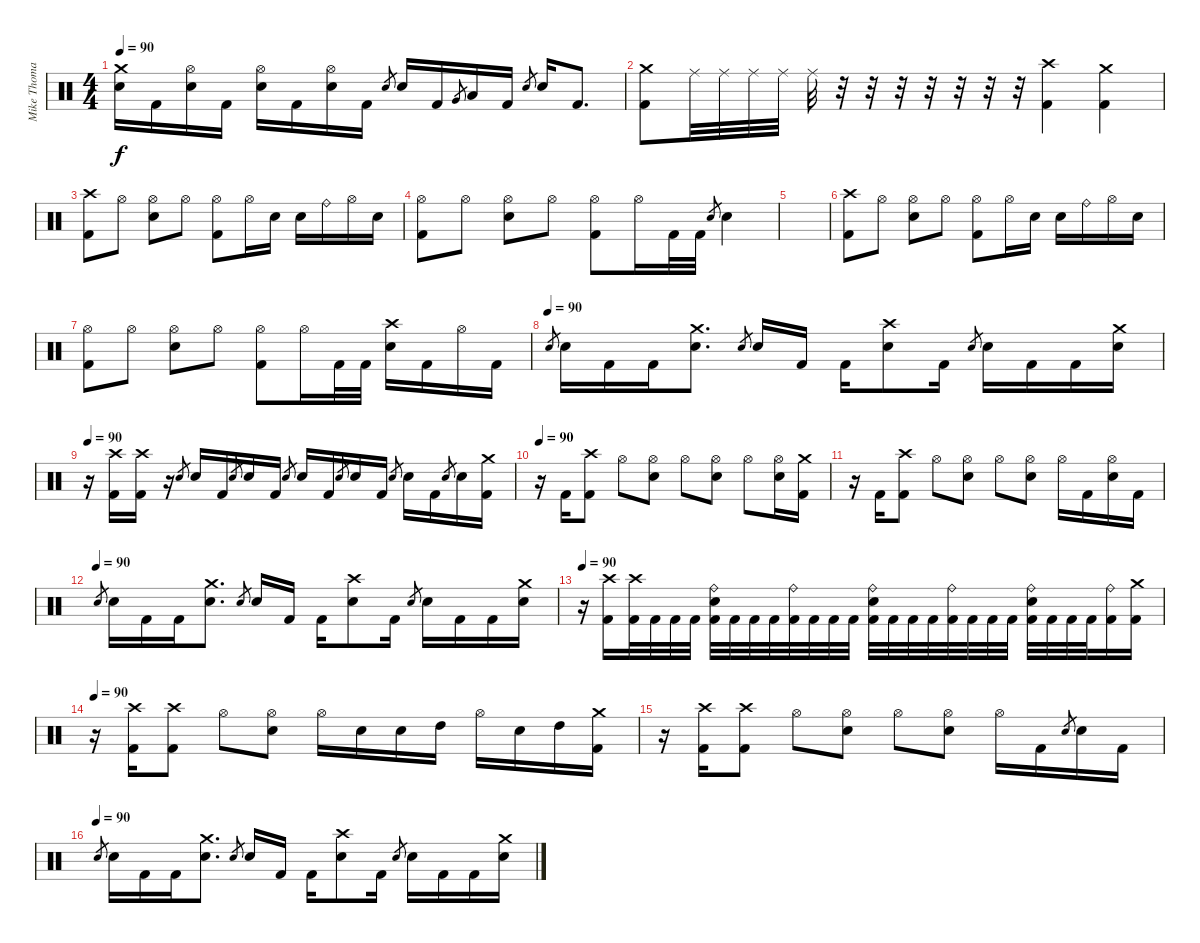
\track ("Mike Thomas (moose)" "Mike Thoma") {instrument percussion}
\staff {score}
\articulation defaults
\ts (4 4)
\tempo 90
\clef neutral
\ks c
("Crash medium (hit)" "Electric Snare (hit)").16{dy f} "Kick (hit) 2".16 ("Hi-Hat (open)" "Electric Snare (hit)").16 "Kick (hit) 2".16 ("Hi-Hat (open)" "Electric Snare (hit)").16 "Kick (hit) 2".16 ("Hi-Hat (open)" "Electric Snare (hit)").16 "Kick (hit) 2".16 "Electric Snare (hit)".8{gr} "Electric Snare (hit)".16 "Kick (hit) 2".16 "Very Low Tom (hit)".8{gr} "Low Floor Tom (hit)".16 "Kick (hit) 2".16 "Electric Snare (hit)".8{gr} "Electric Snare (hit)".16 "Kick (hit) 2".8{d} |
("Crash medium (hit)" "Kick (hit) 2").8 "Ride (middle)".32 "Ride (middle)".32 "Ride (middle)".32 "Ride (middle)".32 "Ride (middle)".32 r.32 r.32 r.32 r.32 r.32 r.32 r.32 ("Crash high (hit)" "Kick (hit) 2").4 ("Crash medium (hit)" "Kick (hit) 2").4 |
("Crash high (hit)" "Kick (hit) 2").8 "Hi-Hat (open)".8 ("Hi-Hat (open)" "Electric Snare (hit)").8 "Hi-Hat (open)".8 ("Hi-Hat (open)" "Kick (hit) 2").8 "Hi-Hat (open)".16 "Electric Snare (hit)".16 "Electric Snare (hit)".16 "Ride (bell)".16 "Hi-Hat (open)".16 "Electric Snare (hit)".16 |
("Hi-Hat (open)" "Kick (hit) 2").8 "Hi-Hat (open)".8 ("Hi-Hat (open)" "Electric Snare (hit)").8 "Hi-Hat (open)".8 ("Hi-Hat (open)" "Kick (hit) 2").8 "Hi-Hat (open)".16 "Kick (hit) 2".32 "Kick (hit) 2".32 "Electric Snare (hit)".8{gr} "Electric Snare (hit)".4 |
|
("Crash high (hit)" "Kick (hit) 2").8 "Hi-Hat (open)".8 ("Hi-Hat (open)" "Electric Snare (hit)").8 "Hi-Hat (open)".8 ("Hi-Hat (open)" "Kick (hit) 2").8 "Hi-Hat (open)".16 "Electric Snare (hit)".16 "Electric Snare (hit)".16 "Ride (bell)".16 "Hi-Hat (open)".16 "Electric Snare (hit)".16 |
("Hi-Hat (open)" "Kick (hit) 2").8 "Hi-Hat (open)".8 ("Hi-Hat (open)" "Electric Snare (hit)").8 "Hi-Hat (open)".8 ("Hi-Hat (open)" "Kick (hit) 2").8 "Hi-Hat (open)".16 "Kick (hit) 2".32 "Kick (hit) 2".32 ("Crash high (hit)" "Electric Snare (hit)").16 "Kick (hit) 2".16 "Hi-Hat (open)".16 "Kick (hit) 2".16 |
\tempo (90)
"Electric Snare (hit)".8{gr} "Electric Snare (hit)".16 "Kick (hit) 2".16 "Kick (hit) 2".16 ("Crash medium (hit)" "Electric Snare (hit)").8{d} "Electric Snare (hit)".8{gr} "Electric Snare (hit)".16 "Kick (hit) 2".16 "Kick (hit) 2".16 ("Crash high (hit)" "Electric Snare (hit)").8 "Kick (hit) 2".16 "Electric Snare (hit)".8{gr} "Electric Snare (hit)".16 "Kick (hit) 2".16 "Kick (hit) 2".16 ("Crash medium (hit)" "Electric Snare (hit)").16 |
\tempo 90
r.16 ("Crash high (hit)" "Kick (hit) 2").16 ("Crash high (hit)" "Kick (hit) 2").16 r.16 "Electric Snare (hit)".8{gr} "Electric Snare (hit)".16 "Kick (hit) 2".16 "Electric Snare (hit)".8{gr} "Electric Snare (hit)".16 "Kick (hit) 2".16 "Electric Snare (hit)".8{gr} "Electric Snare (hit)".16 "Kick (hit) 2".16 "Electric Snare (hit)".8{gr} "Electric Snare (hit)".16 "Kick (hit) 2".16 "Electric Snare (hit)".8{gr} "Electric Snare (hit)".16 "Kick (hit) 2".16 "Electric Snare (hit)".8{gr} "Electric Snare (hit)".16 ("Crash medium (hit)" "Kick (hit) 2").16 |
\tempo 90
r.16 "Kick (hit) 2".16 ("Crash high (hit)" "Kick (hit) 2").8 "Hi-Hat (open)".8 ("Hi-Hat (open)" "Electric Snare (hit)").8 "Hi-Hat (open)".8 ("Hi-Hat (open)" "Electric Snare (hit)").8 "Hi-Hat (open)".8 ("Hi-Hat (open)" "Electric Snare (hit)").16 ("Crash medium (hit)" "Kick (hit) 2").16 |
r.16 "Kick (hit) 2".16 ("Crash high (hit)" "Kick (hit) 2").8 "Hi-Hat (open)".8 ("Hi-Hat (open)" "Electric Snare (hit)").8 "Hi-Hat (open)".8 ("Hi-Hat (open)" "Electric Snare (hit)").8 "Hi-Hat (open)".16 "Kick (hit) 2".16 ("Hi-Hat (open)" "Electric Snare (hit)").16 "Kick (hit) 2".16 |
\tempo (90)
"Electric Snare (hit)".8{gr} "Electric Snare (hit)".16 "Kick (hit) 2".16 "Kick (hit) 2".16 ("Crash medium (hit)" "Electric Snare (hit)").8{d} "Electric Snare (hit)".8{gr} "Electric Snare (hit)".16 "Kick (hit) 2".16 "Kick (hit) 2".16 ("Crash high (hit)" "Electric Snare (hit)").8 "Kick (hit) 2".16 "Electric Snare (hit)".8{gr} "Electric Snare (hit)".16 "Kick (hit) 2".16 "Kick (hit) 2".16 ("Crash medium (hit)" "Electric Snare (hit)").16 |
\tempo 90
r.16 ("Crash high (hit)" "Kick (hit) 2").16 ("Crash high (hit)" "Kick (hit) 2").32 "Kick (hit) 2".32 "Kick (hit) 2".32 "Kick (hit) 2".32 ("Ride (bell)" "Electric Snare (hit)" "Kick (hit) 2").32 "Kick (hit) 2".32 "Kick (hit) 2".32 "Kick (hit) 2".32 ("Ride (bell)" "Kick (hit) 2").32 "Kick (hit) 2".32 "Kick (hit) 2".32 "Kick (hit) 2".32 ("Ride (bell)" "Electric Snare (hit)" "Kick (hit) 2").32 "Kick (hit) 2".32 "Kick (hit) 2".32 "Kick (hit) 2".32 ("Ride (bell)" "Kick (hit) 2").32 "Kick (hit) 2".32 "Kick (hit) 2".32 "Kick (hit) 2".32 ("Ride (bell)" "Electric Snare (hit)" "Kick (hit) 2").32 "Kick (hit) 2".32 "Kick (hit) 2".32 "Kick (hit) 2".32 ("Ride (bell)" "Kick (hit) 2").16 ("Crash medium (hit)" "Kick (hit) 2").16 |
\tempo 90
r.16 ("Crash high (hit)" "Kick (hit) 2").16 ("Crash high (hit)" "Kick (hit) 2").8 "Hi-Hat (open)".8 ("Hi-Hat (open)" "Electric Snare (hit)").8 "Hi-Hat (open)".16 "Electric Snare (hit)".16 "Electric Snare (hit)".16 "High Tom (hit)".16 "Hi-Hat (open)".16 "Electric Snare (hit)".16 "High Tom (hit)".16 ("Crash medium (hit)" "Kick (hit) 2").16 |
r.16 ("Crash high (hit)" "Kick (hit) 2").16 ("Crash high (hit)" "Kick (hit) 2").8 "Hi-Hat (open)".8 ("Hi-Hat (open)" "Electric Snare (hit)").8 "Hi-Hat (open)".8 ("Hi-Hat (open)" "Electric Snare (hit)").8 "Hi-Hat (open)".16 "Kick (hit) 2".16 "Electric Snare (hit)".8{gr} "Electric Snare (hit)".16 "Kick (hit) 2".16 |
\tempo (90)
"Electric Snare (hit)".8{gr} "Electric Snare (hit)".16 "Kick (hit) 2".16 "Kick (hit) 2".16 ("Crash medium (hit)" "Electric Snare (hit)").8{d} "Electric Snare (hit)".8{gr} "Electric Snare (hit)".16 "Kick (hit) 2".16 "Kick (hit) 2".16 ("Crash high (hit)" "Electric Snare (hit)").8 "Kick (hit) 2".16 "Electric Snare (hit)".8{gr} "Electric Snare (hit)".16 "Kick (hit) 2".16 "Kick (hit) 2".16 ("Crash medium (hit)" "Electric Snare (hit)").16
